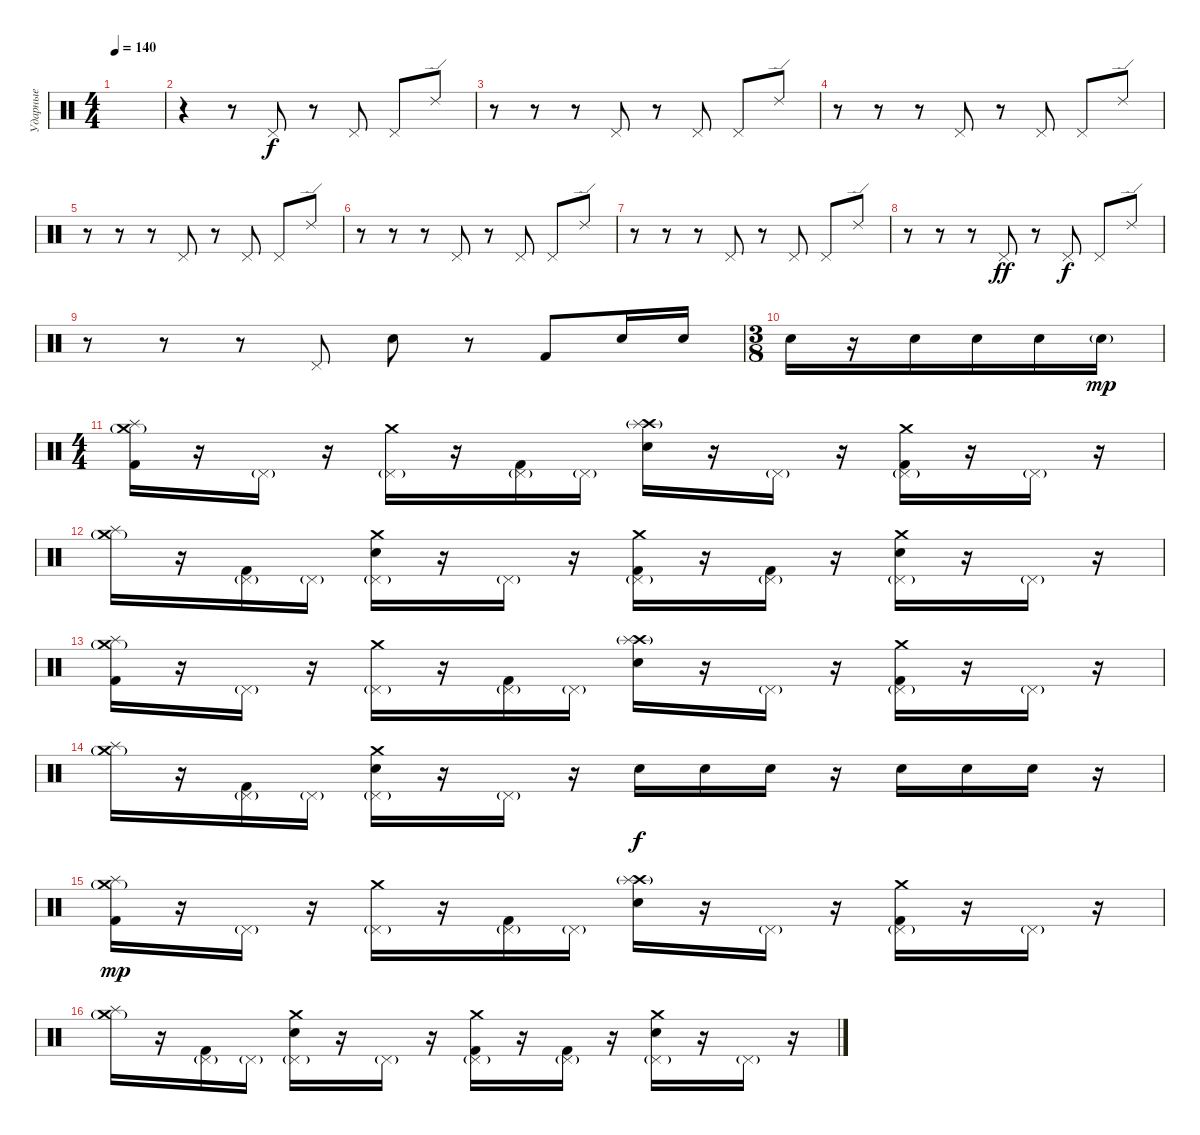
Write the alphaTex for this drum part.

\track ("Ударные" "Ударные") {instrument percussion}
\staff {score}
\articulation defaults
\ts (4 4)
\tempo 140
\clef neutral
\ks c
|
r.4 r.8 "Pedal Hi-Hat (hit)".8{dy f} r.8 "Pedal Hi-Hat (hit)".8 "Pedal Hi-Hat (hit)".8 "Ride (edge) 2".8 |
r.8 r.8 r.8 "Pedal Hi-Hat (hit)".8 r.8 "Pedal Hi-Hat (hit)".8 "Pedal Hi-Hat (hit)".8 "Ride (edge) 2".8 |
r.8 r.8 r.8 "Pedal Hi-Hat (hit)".8 r.8 "Pedal Hi-Hat (hit)".8 "Pedal Hi-Hat (hit)".8 "Ride (edge) 2".8 |
r.8 r.8 r.8 "Pedal Hi-Hat (hit)".8 r.8 "Pedal Hi-Hat (hit)".8 "Pedal Hi-Hat (hit)".8 "Ride (edge) 2".8 |
r.8 r.8 r.8 "Pedal Hi-Hat (hit)".8 r.8 "Pedal Hi-Hat (hit)".8 "Pedal Hi-Hat (hit)".8 "Ride (edge) 2".8 |
r.8 r.8 r.8 "Pedal Hi-Hat (hit)".8 r.8 "Pedal Hi-Hat (hit)".8 "Pedal Hi-Hat (hit)".8 "Ride (edge) 2".8 |
r.8 r.8 r.8 "Pedal Hi-Hat (hit)".8{dy ff} r.8 "Pedal Hi-Hat (hit)".8{dy f} "Pedal Hi-Hat (hit)".8 "Ride (edge) 2".8 |
r.8 r.8 r.8 "Pedal Hi-Hat (hit)".8 "Snare (hit) 2".8 r.8 "Kick (hit) 2".8 "Snare (hit) 2".16 "Snare (hit) 2".16 |
\ts (3 8)
"Snare (hit) 2".16 r.16 "Snare (hit) 2".16 "Snare (hit) 2".16 "Snare (hit) 2".16 "Snare (hit) 2"{g}.16{dy mp} |
\ts (4 4)
("Crash medium (hit)"{g} "Splash (hit)" "Kick (hit) 2").16 r.16 "Pedal Hi-Hat (hit)"{g}.16 r.16 ("Crash medium (hit)" "Pedal Hi-Hat (hit)"{g}).16 r.16 ("Pedal Hi-Hat (hit)"{g} "Kick (hit) 2").16 "Pedal Hi-Hat (hit)"{g}.16 ("Crash high (hit)"{g} "Splash (hit)" "Snare (hit) 2").16 r.16 "Pedal Hi-Hat (hit)"{g}.16 r.16 ("Crash medium (hit)" "Pedal Hi-Hat (hit)"{g} "Kick (hit) 2").16 r.16 "Pedal Hi-Hat (hit)"{g}.16 r.16 |
("Crash medium (hit)"{g} "Splash (hit)").16 r.16 ("Pedal Hi-Hat (hit)"{g} "Kick (hit) 2").16 "Pedal Hi-Hat (hit)"{g}.16 ("Crash medium (hit)" "Pedal Hi-Hat (hit)"{g} "Snare (hit) 2").16 r.16 "Pedal Hi-Hat (hit)"{g}.16 r.16 ("Crash medium (hit)" "Pedal Hi-Hat (hit)"{g} "Kick (hit) 2").16 r.16 ("Pedal Hi-Hat (hit)"{g} "Kick (hit) 2").16 r.16 ("Crash medium (hit)" "Pedal Hi-Hat (hit)"{g} "Snare (hit) 2").16 r.16 "Pedal Hi-Hat (hit)"{g}.16 r.16 |
("Crash medium (hit)"{g} "Splash (hit)" "Kick (hit) 2").16 r.16 "Pedal Hi-Hat (hit)"{g}.16 r.16 ("Crash medium (hit)" "Pedal Hi-Hat (hit)"{g}).16 r.16 ("Pedal Hi-Hat (hit)"{g} "Kick (hit) 2").16 "Pedal Hi-Hat (hit)"{g}.16 ("Crash high (hit)"{g} "Splash (hit)" "Snare (hit) 2").16 r.16 "Pedal Hi-Hat (hit)"{g}.16 r.16 ("Crash medium (hit)" "Pedal Hi-Hat (hit)"{g} "Kick (hit) 2").16 r.16 "Pedal Hi-Hat (hit)"{g}.16 r.16 |
("Crash medium (hit)"{g} "Splash (hit)").16 r.16 ("Pedal Hi-Hat (hit)"{g} "Kick (hit) 2").16 "Pedal Hi-Hat (hit)"{g}.16 ("Crash medium (hit)" "Pedal Hi-Hat (hit)"{g} "Snare (hit) 2").16 r.16 "Pedal Hi-Hat (hit)"{g}.16 r.16 "Snare (hit) 2".16{dy f} "Snare (hit) 2".16 "Snare (hit) 2".16 r.16 "Snare (hit) 2".16 "Snare (hit) 2".16 "Snare (hit) 2".16 r.16 |
("Crash medium (hit)"{g} "Splash (hit)" "Kick (hit) 2").16{dy mp} r.16 "Pedal Hi-Hat (hit)"{g}.16 r.16 ("Crash medium (hit)" "Pedal Hi-Hat (hit)"{g}).16 r.16 ("Pedal Hi-Hat (hit)"{g} "Kick (hit) 2").16 "Pedal Hi-Hat (hit)"{g}.16 ("Crash high (hit)"{g} "Splash (hit)" "Snare (hit) 2").16 r.16 "Pedal Hi-Hat (hit)"{g}.16 r.16 ("Crash medium (hit)" "Pedal Hi-Hat (hit)"{g} "Kick (hit) 2").16 r.16 "Pedal Hi-Hat (hit)"{g}.16 r.16 |
("Crash medium (hit)"{g} "Splash (hit)").16 r.16 ("Pedal Hi-Hat (hit)"{g} "Kick (hit) 2").16 "Pedal Hi-Hat (hit)"{g}.16 ("Crash medium (hit)" "Pedal Hi-Hat (hit)"{g} "Snare (hit) 2").16 r.16 "Pedal Hi-Hat (hit)"{g}.16 r.16 ("Crash medium (hit)" "Pedal Hi-Hat (hit)"{g} "Kick (hit) 2").16 r.16 ("Pedal Hi-Hat (hit)"{g} "Kick (hit) 2").16 r.16 ("Crash medium (hit)" "Pedal Hi-Hat (hit)"{g} "Snare (hit) 2").16 r.16 "Pedal Hi-Hat (hit)"{g}.16 r.16
